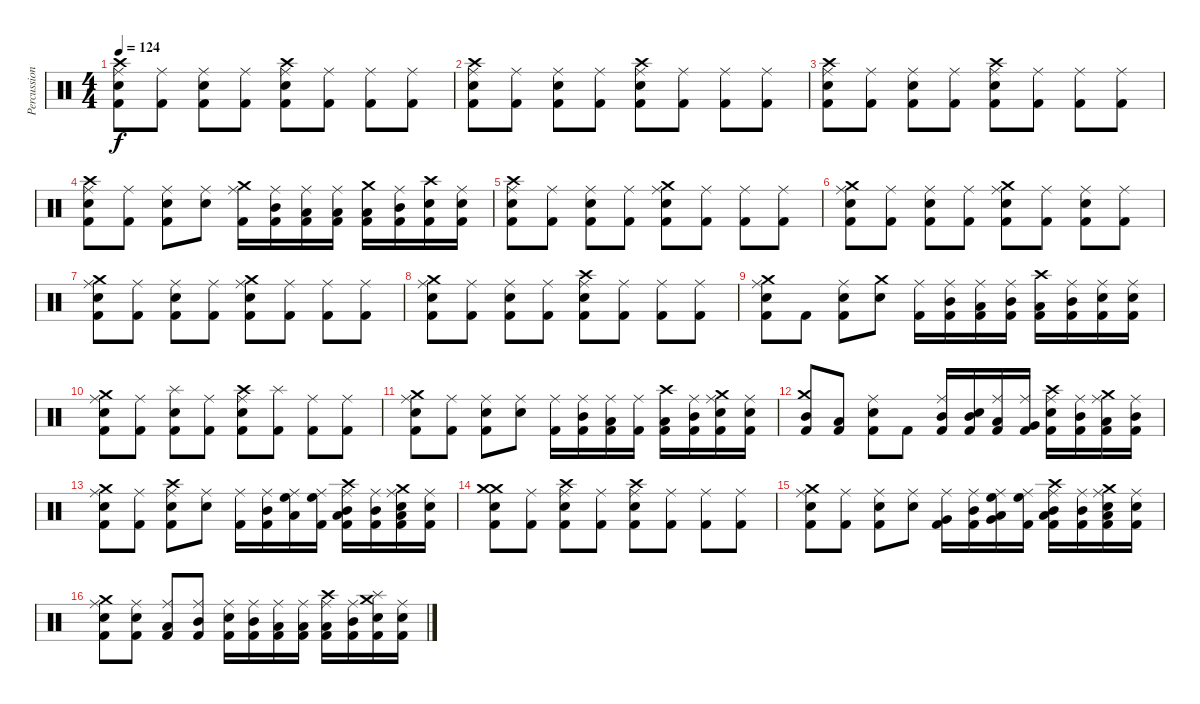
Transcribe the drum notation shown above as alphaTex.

\track ("Percussions" "Percussion") {instrument percussion}
\staff {score}
\articulation defaults
\ts (4 4)
\tempo 124
\clef neutral
\ks c
("Kick (hit) 2" "Electric Snare (hit)" "Crash high (hit)" "Ride (middle)").8{dy f} ("Kick (hit) 2" "Ride (middle)").8 ("Kick (hit) 2" "Electric Snare (hit)" "Ride (middle)").8 ("Kick (hit) 2" "Ride (middle)").8 ("Kick (hit) 2" "Electric Snare (hit)" "Crash high (hit)" "Ride (middle)").8 ("Kick (hit) 2" "Ride (middle)").8 ("Kick (hit) 2" "Ride (middle)").8 ("Kick (hit) 2" "Ride (middle)").8 |
("Kick (hit) 2" "Electric Snare (hit)" "Crash high (hit)" "Ride (middle)").8 ("Kick (hit) 2" "Ride (middle)").8 ("Kick (hit) 2" "Electric Snare (hit)" "Ride (middle)").8 ("Kick (hit) 2" "Ride (middle)").8 ("Kick (hit) 2" "Electric Snare (hit)" "Crash high (hit)" "Ride (middle)").8 ("Kick (hit) 2" "Ride (middle)").8 ("Kick (hit) 2" "Ride (middle)").8 ("Kick (hit) 2" "Ride (middle)").8 |
("Kick (hit) 2" "Electric Snare (hit)" "Crash high (hit)" "Ride (middle)").8 ("Kick (hit) 2" "Ride (middle)").8 ("Kick (hit) 2" "Electric Snare (hit)" "Ride (middle)").8 ("Kick (hit) 2" "Ride (middle)").8 ("Kick (hit) 2" "Electric Snare (hit)" "Crash high (hit)" "Ride (middle)").8 ("Kick (hit) 2" "Ride (middle)").8 ("Kick (hit) 2" "Ride (middle)").8 ("Kick (hit) 2" "Ride (middle)").8 |
("Kick (hit) 2" "Electric Snare (hit)" "Crash high (hit)" "Ride (middle)").8 ("Kick (hit) 2" "Ride (middle)").8 ("Kick (hit) 2" "Electric Snare (hit)" "Ride (middle)").8 ("Electric Snare (hit)" "Ride (middle)").8 ("Kick (hit) 2" "Crash medium (hit)" "Ride (middle)").16 ("Kick (hit) 2" "Mid Tom (hit)" "Ride (middle)").16 ("Low Tom (hit)" "Kick (hit) 2" "Ride (middle)").16 ("Kick (hit) 2" "Low Floor Tom (hit)" "Ride (middle)").16 ("Kick (hit) 2" "Low Tom (hit)" "Crash medium (hit)").16 ("Kick (hit) 2" "Mid Tom (hit)" "Ride (middle)").16 ("Kick (hit) 2" "Electric Snare (hit)" "Crash high (hit)").16 ("Kick (hit) 2" "Electric Snare (hit)" "Ride (middle)").16 |
("Kick (hit) 2" "Electric Snare (hit)" "Crash high (hit)" "Ride (middle)").8 ("Kick (hit) 2" "Ride (middle)").8 ("Kick (hit) 2" "Electric Snare (hit)" "Ride (middle)").8 ("Kick (hit) 2" "Ride (middle)").8 ("Kick (hit) 2" "Electric Snare (hit)" "Crash medium (hit)" "Ride (middle)").8 ("Kick (hit) 2" "Ride (middle)").8 ("Kick (hit) 2" "Ride (middle)").8 ("Kick (hit) 2" "Ride (middle)").8 |
("Kick (hit) 2" "Electric Snare (hit)" "Crash medium (hit)" "Ride (middle)").8 ("Kick (hit) 2" "Ride (middle)").8 ("Kick (hit) 2" "Electric Snare (hit)" "Ride (middle)").8 ("Kick (hit) 2" "Ride (middle)").8 ("Kick (hit) 2" "Electric Snare (hit)" "Crash medium (hit)" "Ride (middle)").8 ("Kick (hit) 2" "Ride (middle)").8 ("Kick (hit) 2" "Electric Snare (hit)" "Ride (middle)").8 ("Kick (hit) 2" "Ride (middle)").8 |
("Kick (hit) 2" "Electric Snare (hit)" "Crash medium (hit)" "Ride (middle)").8 ("Kick (hit) 2" "Ride (middle)").8 ("Kick (hit) 2" "Electric Snare (hit)" "Ride (middle)").8 ("Kick (hit) 2" "Ride (middle)").8 ("Kick (hit) 2" "Electric Snare (hit)" "Crash medium (hit)" "Ride (middle)").8 ("Kick (hit) 2" "Ride (middle)").8 ("Kick (hit) 2" "Ride (middle)").8 ("Kick (hit) 2" "Ride (middle)").8 |
("Kick (hit) 2" "Electric Snare (hit)" "Crash medium (hit)" "Ride (middle)").8 ("Kick (hit) 2" "Ride (middle)").8 ("Kick (hit) 2" "Electric Snare (hit)" "Ride (middle)").8 ("Kick (hit) 2" "Ride (middle)").8 ("Kick (hit) 2" "Electric Snare (hit)" "Crash high (hit)" "Ride (middle)").8 ("Kick (hit) 2" "Ride (middle)").8 ("Kick (hit) 2" "Ride (middle)").8 ("Kick (hit) 2" "Ride (middle)").8 |
("Kick (hit) 2" "Electric Snare (hit)" "Crash medium (hit)" "Ride (middle)").8 "Kick (hit) 2".8 ("Kick (hit) 2" "Electric Snare (hit)" "Ride (middle)").8 ("Electric Snare (hit)" "Crash medium (hit)").8 ("Kick (hit) 2" "Ride (middle)").16 ("Kick (hit) 2" "Mid Tom (hit)" "Ride (middle)").16 ("Low Tom (hit)" "Kick (hit) 2" "Ride (middle)").16 ("Kick (hit) 2" "Mid Tom (hit)" "Ride (middle)").16 ("Kick (hit) 2" "Low Tom (hit)" "Crash high (hit)").16 ("Kick (hit) 2" "Mid Tom (hit)" "Ride (middle)").16 ("Kick (hit) 2" "Electric Snare (hit)" "Ride (middle)").16 ("Kick (hit) 2" "Electric Snare (hit)" "Ride (middle)").16 |
("Kick (hit) 2" "Electric Snare (hit)" "Crash medium (hit)" "Ride (middle)").8 ("Kick (hit) 2" "Ride (middle)").8 ("Kick (hit) 2" "Electric Snare (hit)" "Splash (hit)").8 ("Kick (hit) 2" "Ride (middle)").8 ("Kick (hit) 2" "Electric Snare (hit)" "Crash high (hit)" "Ride (middle)").8 ("Kick (hit) 2" "Splash (hit)").8 ("Kick (hit) 2" "Ride (middle)").8 ("Kick (hit) 2" "Ride (middle)").8 |
("Kick (hit) 2" "Electric Snare (hit)" "Crash medium (hit)" "Ride (middle)").8 ("Kick (hit) 2" "Ride (middle)").8 ("Kick (hit) 2" "Electric Snare (hit)" "Ride (middle)").8 ("Electric Snare (hit)" "Ride (middle)").8 ("Kick (hit) 2" "Ride (middle)").16 ("Kick (hit) 2" "Mid Tom (hit)" "Ride (middle)").16 ("Low Tom (hit)" "Kick (hit) 2" "Ride (middle)").16 ("Kick (hit) 2" "Ride (middle)").16 ("Kick (hit) 2" "Low Tom (hit)" "Crash high (hit)").16 ("Kick (hit) 2" "Mid Tom (hit)" "Ride (middle)").16 ("Kick (hit) 2" "Electric Snare (hit)" "Crash medium (hit)" "Ride (middle)").16 ("Kick (hit) 2" "Electric Snare (hit)" "Ride (middle)").16 |
("Kick (hit) 2" "Mid Tom (hit)" "Crash medium (hit)").8 ("Kick (hit) 2" "Low Tom (hit)").8 ("Kick (hit) 2" "Electric Snare (hit)" "Ride (middle)").8 "Kick (hit) 2".8 ("Kick (hit) 2" "Mid Tom (hit)" "Ride (middle)").16 ("Kick (hit) 2" "Electric Snare (hit)" "Mid Tom (hit)").16 ("Kick (hit) 2" "Low Tom (hit)" "Ride (middle)").16 ("Kick (hit) 2" "Very Low Tom (hit)" "Ride (middle)").16 ("Kick (hit) 2" "Electric Snare (hit)" "Crash high (hit)" "Ride (middle)").16 ("Kick (hit) 2" "Mid Tom (hit)" "Ride (middle)").16 ("Kick (hit) 2" "Low Tom (hit)" "Crash medium (hit)" "Ride (middle)").16 ("Kick (hit) 2" "Mid Tom (hit)" "Ride (middle)").16 |
("Kick (hit) 2" "Electric Snare (hit)" "Crash medium (hit)" "Ride (middle)").8 ("Kick (hit) 2" "Ride (middle)").8 ("Kick (hit) 2" "Electric Snare (hit)" "Crash high (hit)" "Ride (middle)").8 ("Electric Snare (hit)" "Ride (middle)").8 ("Kick (hit) 2" "Ride (middle)").16 ("Kick (hit) 2" "Mid Tom (hit)" "Ride (middle)").16 ("Low Tom (hit)" "High Floor Tom (hit)" "Ride (middle)").16 ("Kick (hit) 2" "High Floor Tom (hit)" "Ride (middle)").16 ("Kick (hit) 2" "Low Tom (hit)" "Mid Tom (hit)" "Crash high (hit)" "Ride (middle)").16 ("Kick (hit) 2" "Mid Tom (hit)" "Ride (middle)").16 ("Kick (hit) 2" "Low Tom (hit)" "Electric Snare (hit)" "Crash medium (hit)" "Ride (middle)").16 ("Kick (hit) 2" "Electric Snare (hit)" "Ride (middle)").16 |
("Kick (hit) 2" "Electric Snare (hit)" "Crash medium (hit)" "Crash medium (hit)").8 ("Kick (hit) 2" "Ride (middle)").8 ("Kick (hit) 2" "Electric Snare (hit)" "Crash high (hit)" "Ride (middle)").8 ("Kick (hit) 2" "Ride (middle)").8 ("Kick (hit) 2" "Electric Snare (hit)" "Crash high (hit)" "Ride (middle)").8 ("Kick (hit) 2" "Ride (middle)").8 ("Kick (hit) 2" "Ride (middle)").8 ("Kick (hit) 2" "Ride (middle)").8 |
("Kick (hit) 2" "Electric Snare (hit)" "Crash medium (hit)" "Ride (middle)").8 ("Kick (hit) 2" "Ride (middle)").8 ("Kick (hit) 2" "Electric Snare (hit)" "Ride (middle)").8 ("Electric Snare (hit)" "Ride (middle)").8 ("Very Low Tom (hit)" "Kick (hit) 2" "Ride (middle)").16 ("Kick (hit) 2" "Mid Tom (hit)" "Ride (middle)").16 ("Low Tom (hit)" "High Floor Tom (hit)" "Very Low Tom (hit)" "Ride (middle)").16 ("Kick (hit) 2" "High Floor Tom (hit)" "Ride (middle)").16 ("Kick (hit) 2" "Low Tom (hit)" "Mid Tom (hit)" "Crash high (hit)" "Ride (middle)").16 ("Kick (hit) 2" "Mid Tom (hit)" "Ride (middle)").16 ("Kick (hit) 2" "Low Tom (hit)" "Electric Snare (hit)" "Crash medium (hit)" "Ride (middle)").16 ("Kick (hit) 2" "Electric Snare (hit)" "Ride (middle)").16 |
("Kick (hit) 2" "Electric Snare (hit)" "Crash medium (hit)" "Ride (middle)").8 ("Kick (hit) 2" "Electric Snare (hit)" "Ride (middle)").8 ("Kick (hit) 2" "Low Tom (hit)" "Ride (middle)").8 ("Kick (hit) 2" "Mid Tom (hit)" "Ride (middle)").8 ("Kick (hit) 2" "Electric Snare (hit)" "Ride (middle)").16 ("Kick (hit) 2" "Mid Tom (hit)" "Ride (middle)").16 ("Kick (hit) 2" "Low Tom (hit)" "Ride (middle)").16 ("Kick (hit) 2" "Low Floor Tom (hit)" "Ride (middle)").16 ("Kick (hit) 2" "Low Tom (hit)" "Crash high (hit)" "Ride (middle)").16 ("Kick (hit) 2" "Mid Tom (hit)" "Ride (middle)").16 ("Kick (hit) 2" "Electric Snare (hit)" "Crash medium (hit)" "Splash (hit)").16 ("Kick (hit) 2" "Electric Snare (hit)" "Ride (middle)").16
